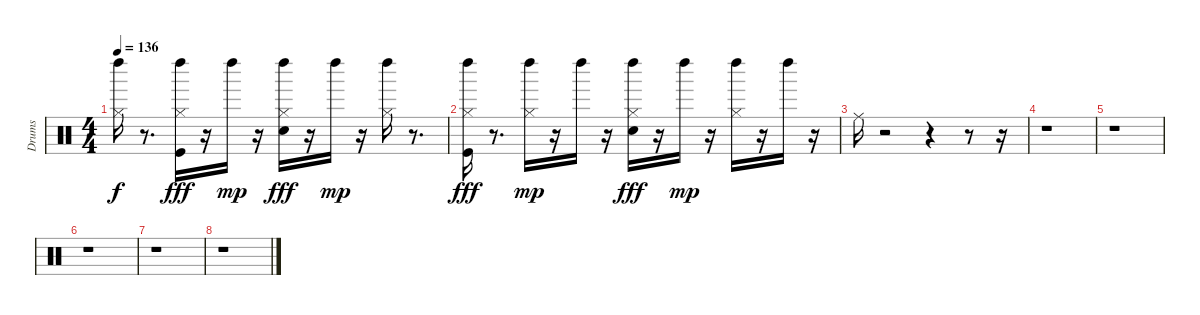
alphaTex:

\track ("Drums" "Drums") {instrument percussion}
\staff {score}
\articulation defaults
\ts (4 4)
\tempo 136
\clef neutral
\ks c
("Hi-Hat (closed)" "Left Maraca (hit)").16{dy f} r.8{d} ("Hi-Hat (closed)" "Kick (hit)" "Left Maraca (hit)").16{dy fff} r.16 "Left Maraca (hit)".16{dy mp} r.16 ("Snare (hit) 2" "Hi-Hat (closed)" "Left Maraca (hit)").16{dy fff} r.16 "Left Maraca (hit)".16{dy mp} r.16 ("Hi-Hat (closed)" "Left Maraca (hit)").16 r.8{d} |
("Kick (hit)" "Hi-Hat (closed)" "Left Maraca (hit)").16{dy fff} r.8{d} ("Hi-Hat (closed)" "Left Maraca (hit)").16{dy mp} r.16 "Left Maraca (hit)".16 r.16 ("Snare (hit) 2" "Hi-Hat (closed)" "Left Maraca (hit)").16{dy fff} r.16 "Left Maraca (hit)".16{dy mp} r.16 ("Hi-Hat (closed)" "Left Maraca (hit)").16 r.16 "Left Maraca (hit)".16 r.16 |
"Ride (middle)".16 r.2 r.4 r.8 r.16 |
r.1 |
r.1 |
r.1 |
r.1 |
r.1
